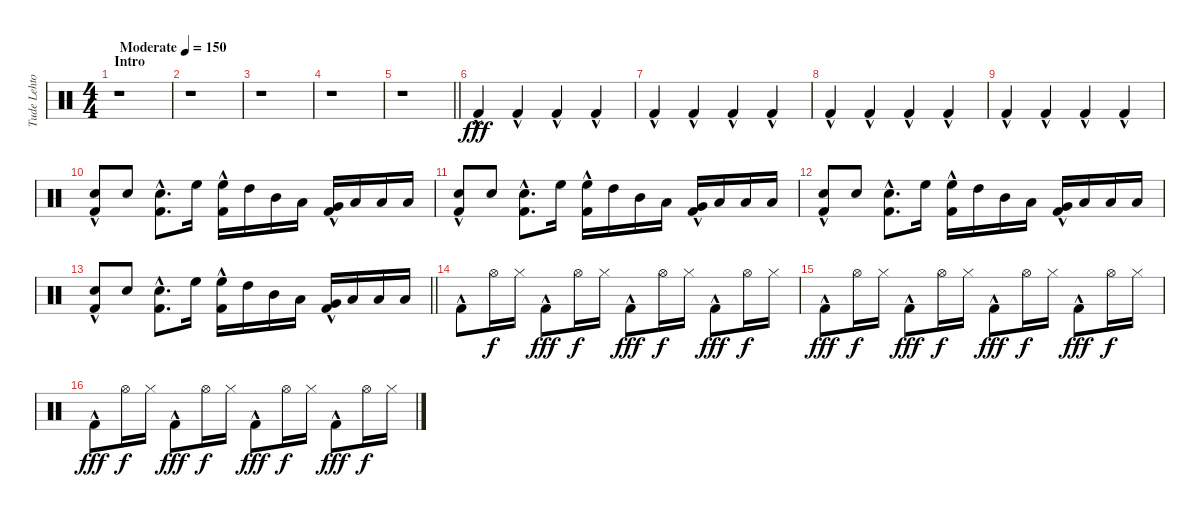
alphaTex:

\track ("Tude Lehtonen" "Tude Lehto") {instrument percussion}
\staff {score}
\articulation defaults
\ts (4 4)
\section ("" "Intro")
\tempo (150 "Moderate")
\clef neutral
\ks c
r.1{dy fff} |
r.1 |
r.1 |
r.1 |
\barLineRight lightlight
r.1 |
\section ("" "")
"Kick (hit) 2"{hac}.4 "Kick (hit) 2"{hac}.4 "Kick (hit) 2"{hac}.4 "Kick (hit) 2"{hac}.4 |
"Kick (hit) 2"{hac}.4 "Kick (hit) 2"{hac}.4 "Kick (hit) 2"{hac}.4 "Kick (hit) 2"{hac}.4 |
"Kick (hit) 2"{hac}.4 "Kick (hit) 2"{hac}.4 "Kick (hit) 2"{hac}.4 "Kick (hit) 2"{hac}.4 |
"Kick (hit) 2"{hac}.4 "Kick (hit) 2"{hac}.4 "Kick (hit) 2"{hac}.4 "Kick (hit) 2"{hac}.4 |
("Electric Snare (hit)" "Kick (hit) 2"{hac}).8 "Electric Snare (hit)".8 ("Electric Snare (hit)" "Kick (hit) 2"{hac}).8{d} "High Floor Tom (hit)".16 ("High Floor Tom (hit)" "Kick (hit) 2"{hac}).16 "High Tom (hit)".16 "Mid Tom (hit)".16 "Low Tom (hit)".16 ("Very Low Tom (hit)" "Kick (hit) 2"{hac}).16 "Low Floor Tom (hit)".16 "Low Floor Tom (hit)".16 "Low Floor Tom (hit)".16 |
("Electric Snare (hit)" "Kick (hit) 2"{hac}).8 "Electric Snare (hit)".8 ("Electric Snare (hit)" "Kick (hit) 2"{hac}).8{d} "High Floor Tom (hit)".16 ("High Floor Tom (hit)" "Kick (hit) 2"{hac}).16 "High Tom (hit)".16 "Mid Tom (hit)".16 "Low Tom (hit)".16 ("Very Low Tom (hit)" "Kick (hit) 2"{hac}).16 "Low Floor Tom (hit)".16 "Low Floor Tom (hit)".16 "Low Floor Tom (hit)".16 |
("Electric Snare (hit)" "Kick (hit) 2"{hac}).8 "Electric Snare (hit)".8 ("Electric Snare (hit)" "Kick (hit) 2"{hac}).8{d} "High Floor Tom (hit)".16 ("High Floor Tom (hit)" "Kick (hit) 2"{hac}).16 "High Tom (hit)".16 "Mid Tom (hit)".16 "Low Tom (hit)".16 ("Very Low Tom (hit)" "Kick (hit) 2"{hac}).16 "Low Floor Tom (hit)".16 "Low Floor Tom (hit)".16 "Low Floor Tom (hit)".16 |
\barLineRight lightlight
("Electric Snare (hit)" "Kick (hit) 2"{hac}).8 "Electric Snare (hit)".8 ("Electric Snare (hit)" "Kick (hit) 2"{hac}).8{d} "High Floor Tom (hit)".16 ("High Floor Tom (hit)" "Kick (hit) 2"{hac}).16 "High Tom (hit)".16 "Mid Tom (hit)".16 "Low Tom (hit)".16 ("Very Low Tom (hit)" "Kick (hit) 2"{hac}).16 "Low Floor Tom (hit)".16 "Low Floor Tom (hit)".16 "Low Floor Tom (hit)".16 |
\section ("" "")
"Kick (hit) 2"{hac}.8 "Hi-Hat (open)".16{dy f} "Hi-Hat (closed)".16 "Kick (hit) 2"{hac}.8{dy fff} "Hi-Hat (open)".16{dy f} "Hi-Hat (closed)".16 "Kick (hit) 2"{hac}.8{dy fff} "Hi-Hat (open)".16{dy f} "Hi-Hat (closed)".16 "Kick (hit) 2"{hac}.8{dy fff} "Hi-Hat (open)".16{dy f} "Hi-Hat (closed)".16 |
"Kick (hit) 2"{hac}.8{dy fff} "Hi-Hat (open)".16{dy f} "Hi-Hat (closed)".16 "Kick (hit) 2"{hac}.8{dy fff} "Hi-Hat (open)".16{dy f} "Hi-Hat (closed)".16 "Kick (hit) 2"{hac}.8{dy fff} "Hi-Hat (open)".16{dy f} "Hi-Hat (closed)".16 "Kick (hit) 2"{hac}.8{dy fff} "Hi-Hat (open)".16{dy f} "Hi-Hat (closed)".16 |
"Kick (hit) 2"{hac}.8{dy fff} "Hi-Hat (open)".16{dy f} "Hi-Hat (closed)".16 "Kick (hit) 2"{hac}.8{dy fff} "Hi-Hat (open)".16{dy f} "Hi-Hat (closed)".16 "Kick (hit) 2"{hac}.8{dy fff} "Hi-Hat (open)".16{dy f} "Hi-Hat (closed)".16 "Kick (hit) 2"{hac}.8{dy fff} "Hi-Hat (open)".16{dy f} "Hi-Hat (closed)".16
